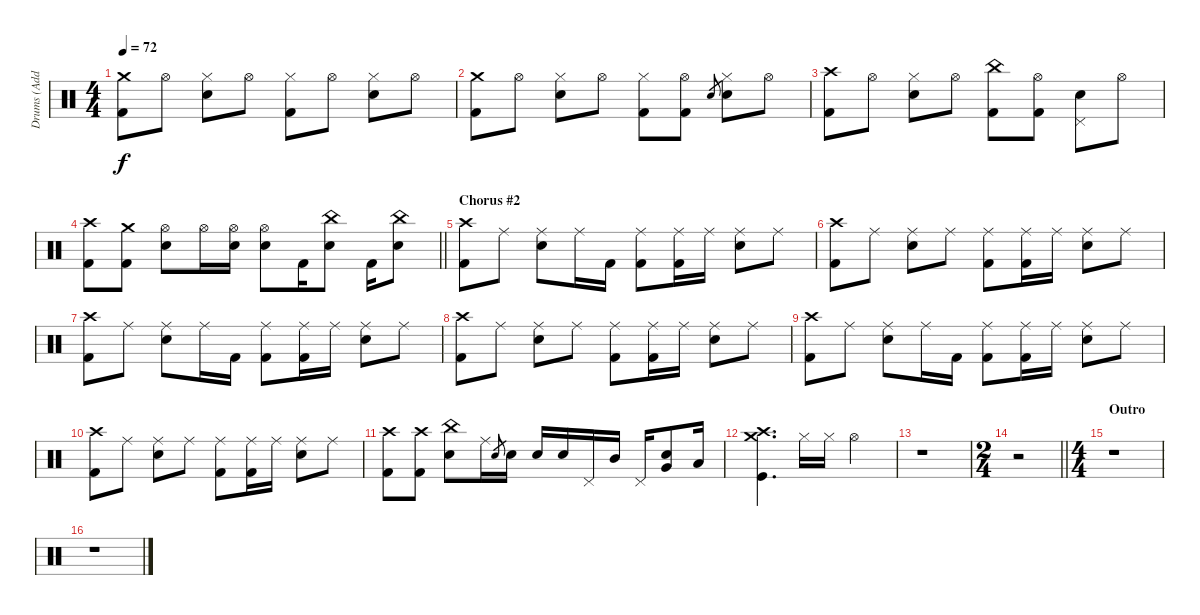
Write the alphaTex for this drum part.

\track ("Drums (Added by Leonardo_codev)" "Drums (Add") {instrument percussion}
\staff {score}
\articulation defaults
\ts (4 4)
\tempo 72
\clef neutral
\ks c
("Crash medium (hit)" "Kick (hit) 2").8{dy f} "Hi-Hat (open)".8 ("Hi-Hat (closed)" "Electric Snare (hit)").8 "Hi-Hat (open)".8 ("Hi-Hat (closed)" "Kick (hit) 2").8 "Hi-Hat (open)".8 ("Hi-Hat (closed)" "Electric Snare (hit)").8 "Hi-Hat (open)".8 |
("Crash medium (hit)" "Kick (hit) 2").8 "Hi-Hat (open)".8 ("Hi-Hat (closed)" "Electric Snare (hit)").8 "Hi-Hat (open)".8 ("Hi-Hat (closed)" "Kick (hit) 2").8 ("Hi-Hat (open)" "Kick (hit) 2").8 "Electric Snare (hit)".8{gr} ("Hi-Hat (closed)" "Electric Snare (hit)").8 "Hi-Hat (open)".8 |
("Crash high (hit)" "Kick (hit) 2").8 "Hi-Hat (open)".8 ("Hi-Hat (closed)" "Electric Snare (hit)").8 "Hi-Hat (open)".8 ("China (hit)" "Kick (hit) 2").8 ("Hi-Hat (open)" "Kick (hit) 2").8 ("Electric Snare (hit)" "Pedal Hi-Hat (hit)").8 "Hi-Hat (open)".8 |
\barLineRight lightlight
("Crash high (hit)" "Kick (hit) 2").8 ("Crash medium (hit)" "Kick (hit) 2").8 ("Hi-Hat (open)" "Electric Snare (hit)").8 "Hi-Hat (open)".16 ("Hi-Hat (open)" "Electric Snare (hit)").16 ("Hi-Hat (open)" "Electric Snare (hit)").8 "Kick (hit) 2".16 ("China (hit)" "Electric Snare (hit)").8 "Kick (hit) 2".16 ("China (hit)" "Electric Snare (hit)").8 |
\section ("" "Chorus #2")
("Crash high (hit)" "Kick (hit) 2").8 "Ride (middle)".8 ("Ride (middle)" "Electric Snare (hit)").8 "Ride (middle)".16 "Kick (hit) 2".16 ("Ride (middle)" "Kick (hit) 2").8 ("Ride (middle)" "Kick (hit) 2").16 "Ride (middle)".16 ("Ride (middle)" "Electric Snare (hit)").8 "Ride (middle)".8 |
("Crash high (hit)" "Kick (hit) 2").8 "Ride (middle)".8 ("Ride (middle)" "Electric Snare (hit)").8 "Ride (middle)".8 ("Ride (middle)" "Kick (hit) 2").8 ("Ride (middle)" "Kick (hit) 2").16 "Ride (middle)".16 ("Ride (middle)" "Electric Snare (hit)").8 "Ride (middle)".8 |
("Crash high (hit)" "Kick (hit) 2").8 "Ride (middle)".8 ("Ride (middle)" "Electric Snare (hit)").8 "Ride (middle)".16 "Kick (hit) 2".16 ("Ride (middle)" "Kick (hit) 2").8 ("Ride (middle)" "Kick (hit) 2").16 "Ride (middle)".16 ("Ride (middle)" "Electric Snare (hit)").8 "Ride (middle)".8 |
("Crash high (hit)" "Kick (hit) 2").8 "Ride (middle)".8 ("Ride (middle)" "Electric Snare (hit)").8 "Ride (middle)".8 ("Ride (middle)" "Kick (hit) 2").8 ("Ride (middle)" "Kick (hit) 2").16 "Ride (middle)".16 ("Ride (middle)" "Electric Snare (hit)").8 "Ride (middle)".8 |
("Crash high (hit)" "Kick (hit) 2").8 "Ride (middle)".8 ("Ride (middle)" "Electric Snare (hit)").8 "Ride (middle)".16 "Kick (hit) 2".16 ("Ride (middle)" "Kick (hit) 2").8 ("Ride (middle)" "Kick (hit) 2").16 "Ride (middle)".16 ("Ride (middle)" "Electric Snare (hit)").8 "Ride (middle)".8 |
("Crash high (hit)" "Kick (hit) 2").8 "Ride (middle)".8 ("Ride (middle)" "Electric Snare (hit)").8 "Ride (middle)".8 ("Ride (middle)" "Kick (hit) 2").8 ("Ride (middle)" "Kick (hit) 2").16 "Ride (middle)".16 ("Ride (middle)" "Electric Snare (hit)").8 "Ride (middle)".8 |
("Crash high (hit)" "Kick (hit) 2").8 ("Crash high (hit)" "Kick (hit) 2").8 ("China (hit)" "Electric Snare (hit)").8 "Ride (middle)".16 "Electric Snare (hit)".8{gr} "Electric Snare (hit)".16 "Electric Snare (hit)".16 "Electric Snare (hit)".16 "Pedal Hi-Hat (hit)".16 "Mid Tom (hit)".16 "Pedal Hi-Hat (hit)".16 ("Very Low Tom (hit)" "Electric Snare (hit)").8 "Low Tom (hit)".16 |
("Crash high (hit)" "Crash medium (hit)" "Kick (hit)").4{d} "Hi-Hat (closed)".16 "Hi-Hat (closed)".16 "Hi-Hat (open)".2 |
r.1 |
\ts (2 4)
\barLineRight lightlight
r.2 |
\ts (4 4)
\section ("" "Outro")
r.1 |
r.1
